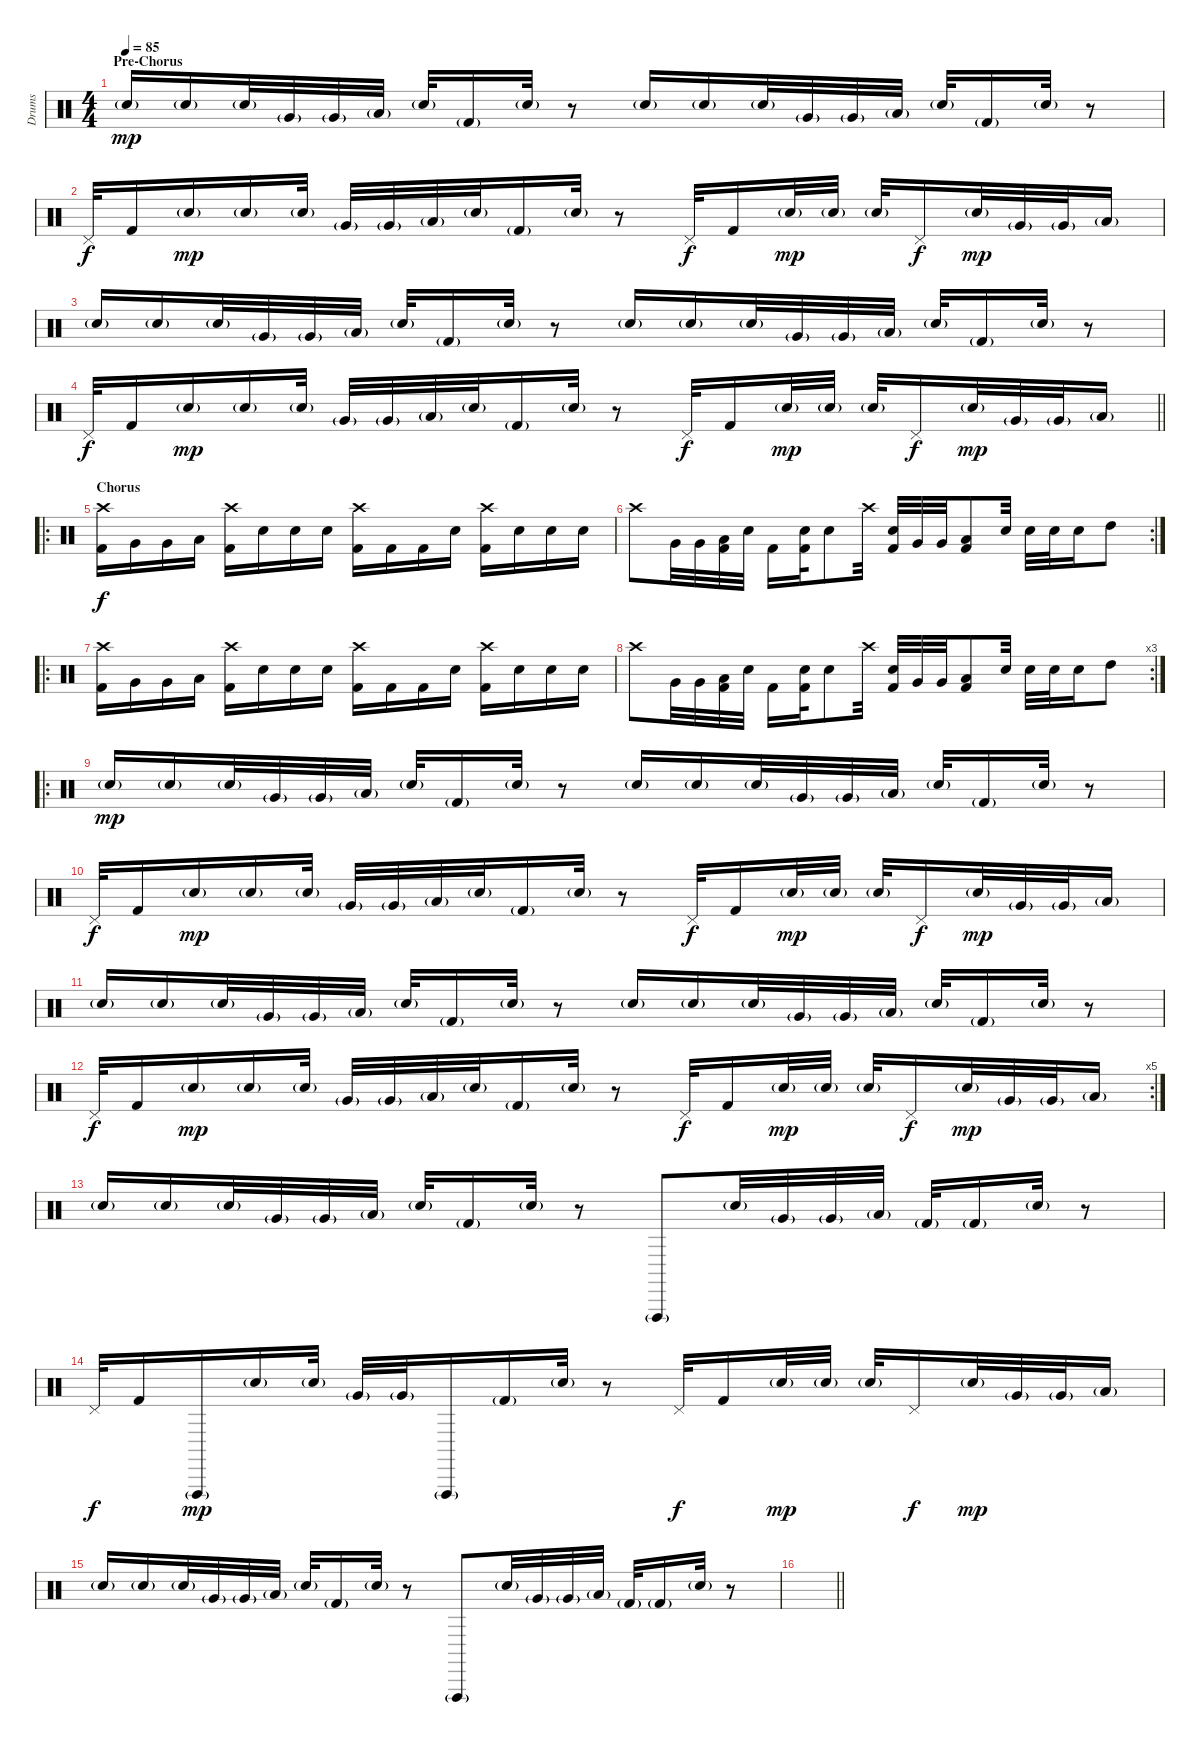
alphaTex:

\track ("Drums" "Drums") {instrument percussion}
\staff {score}
\articulation defaults
\ts (4 4)
\section ("" "Pre-Chorus")
\tempo 85
\clef neutral
\ks c "Snare (hit) 2"{g}.16{dy mp} "Snare (hit) 2"{g}.16 "Snare (hit) 2"{g}.32 "Very Low Tom (hit)"{g}.32 "Very Low Tom (hit)"{g}.32 "Low Tom (hit)"{g}.32 "Snare (hit) 2"{g}.32 "Kick (hit) 2"{g}.16 "Snare (hit) 2"{g}.32
r.8 "Snare (hit) 2"{g}.16 "Snare (hit) 2"{g}.16 "Snare (hit) 2"{g}.32 "Very Low Tom (hit)"{g}.32 "Very Low Tom (hit)"{g}.32 "Low Tom (hit)"{g}.32 "Snare (hit) 2"{g}.32 "Kick (hit) 2"{g}.16 "Snare (hit) 2"{g}.32 r.8 |
"Pedal Hi-Hat (hit)".32{dy f} "Kick (hit) 2".16 "Snare (hit) 2"{g}.16{dy mp} "Snare (hit) 2"{g}.16 "Snare (hit) 2"{g}.32 "Very Low Tom (hit)"{g}.32 "Very Low Tom (hit)"{g}.32 "Low Tom (hit)"{g}.32 "Snare (hit) 2"{g}.32 "Kick (hit) 2"{g}.16 "Snare (hit) 2"{g}.32 r.8 "Pedal Hi-Hat (hit)".32{dy f} "Kick (hit) 2".16 "Snare (hit) 2"{g}.32{dy mp} "Snare (hit) 2"{g}.32 "Snare (hit) 2"{g}.32 "Pedal Hi-Hat (hit)".16{dy f} "Snare (hit) 2"{g}.32{dy mp} "Very Low Tom (hit)"{g}.32 "Very Low Tom (hit)"{g}.32 "Low Tom (hit)"{g}.16 |
"Snare (hit) 2"{g}.16 "Snare (hit) 2"{g}.16 "Snare (hit) 2"{g}.32 "Very Low Tom (hit)"{g}.32 "Very Low Tom (hit)"{g}.32 "Low Tom (hit)"{g}.32 "Snare (hit) 2"{g}.32 "Kick (hit) 2"{g}.16 "Snare (hit) 2"{g}.32 r.8 "Snare (hit) 2"{g}.16 "Snare (hit) 2"{g}.16 "Snare (hit) 2"{g}.32 "Very Low Tom (hit)"{g}.32 "Very Low Tom (hit)"{g}.32 "Low Tom (hit)"{g}.32 "Snare (hit) 2"{g}.32 "Kick (hit) 2"{g}.16 "Snare (hit) 2"{g}.32 r.8 |
\barLineRight lightlight "Pedal Hi-Hat (hit)".32{dy f} "Kick (hit) 2".16 "Snare (hit) 2"{g}.16{dy mp} "Snare (hit) 2"{g}.16 "Snare (hit) 2"{g}.32 "Very Low Tom (hit)"{g}.32 "Very Low Tom (hit)"{g}.32 "Low Tom (hit)"{g}.32 "Snare (hit) 2"{g}.32 "Kick (hit) 2"{g}.16 "Snare (hit) 2"{g}.32
r.8 "Pedal Hi-Hat (hit)".32{dy f} "Kick (hit) 2".16 "Snare (hit) 2"{g}.32{dy mp} "Snare (hit) 2"{g}.32 "Snare (hit) 2"{g}.32 "Pedal Hi-Hat (hit)".16{dy f} "Snare (hit) 2"{g}.32{dy mp} "Very Low Tom (hit)"{g}.32 "Very Low Tom (hit)"{g}.32 "Low Tom (hit)"{g}.16 |
\ro
\section ("" "Chorus")
("Crash high (hit)" "Kick (hit) 2").16{dy f} "Very Low Tom (hit)".16 "Very Low Tom (hit)".16 "Low Tom (hit)".16 ("Crash high (hit)" "Kick (hit) 2").16 "Snare (hit) 2".16 "Snare (hit) 2".16 "Snare (hit) 2".16 ("Crash high (hit)" "Kick (hit) 2").16 "Kick (hit) 2".16 "Kick (hit) 2".16 "Snare (hit) 2".16 ("Crash high (hit)" "Kick (hit) 2").16 "Snare (hit) 2".16 "Snare (hit) 2".16 "Snare (hit) 2".16 |
\rc 2 "Crash high (hit)".8 "Very Low Tom (hit)".32 "Very Low Tom (hit)".32
("Low Tom (hit)" "Kick (hit) 2").32 "Snare (hit) 2".32 "Kick (hit) 2".16 ("Snare (hit) 2" "Kick (hit) 2").32 "Snare (hit) 2".8 "Crash high (hit)".32 ("Snare (hit) 2" "Kick (hit) 2").32 "Very Low Tom (hit)".32 "Very Low Tom (hit)".32 ("Low Tom (hit)" "Kick (hit) 2").8 "Snare (hit) 2".32 "Snare (hit) 2".32 "Snare (hit) 2".32 "Snare (hit) 2".16 "High Tom (hit)".8 |
\ro
("Crash high (hit)" "Kick (hit) 2").16 "Very Low Tom (hit)".16 "Very Low Tom (hit)".16 "Low Tom (hit)".16 ("Crash high (hit)" "Kick (hit) 2").16 "Snare (hit) 2".16 "Snare (hit) 2".16 "Snare (hit) 2".16 ("Crash high (hit)" "Kick (hit) 2").16 "Kick (hit) 2".16 "Kick (hit) 2".16 "Snare (hit) 2".16 ("Crash high (hit)" "Kick (hit) 2").16 "Snare (hit) 2".16 "Snare (hit) 2".16 "Snare (hit) 2".16 |
\rc 3 "Crash high (hit)".8 "Very Low Tom (hit)".32 "Very Low Tom (hit)".32
("Low Tom (hit)" "Kick (hit) 2").32 "Snare (hit) 2".32 "Kick (hit) 2".16 ("Snare (hit) 2" "Kick (hit) 2").32 "Snare (hit) 2".8 "Crash high (hit)".32 ("Snare (hit) 2" "Kick (hit) 2").32 "Very Low Tom (hit)".32 "Very Low Tom (hit)".32 ("Low Tom (hit)" "Kick (hit) 2").8 "Snare (hit) 2".32 "Snare (hit) 2".32 "Snare (hit) 2".32 "Snare (hit) 2".16 "High Tom (hit)".8 |
\ro "Snare (hit) 2"{g}.16{dy mp} "Snare (hit) 2"{g}.16 "Snare (hit) 2"{g}.32 "Very Low Tom (hit)"{g}.32 "Very Low Tom (hit)"{g}.32 "Low Tom (hit)"{g}.32 "Snare (hit) 2"{g}.32 "Kick (hit) 2"{g}.16 "Snare (hit) 2"{g}.32
r.8 "Snare (hit) 2"{g}.16 "Snare (hit) 2"{g}.16 "Snare (hit) 2"{g}.32 "Very Low Tom (hit)"{g}.32 "Very Low Tom (hit)"{g}.32 "Low Tom (hit)"{g}.32 "Snare (hit) 2"{g}.32 "Kick (hit) 2"{g}.16 "Snare (hit) 2"{g}.32 r.8 |
"Pedal Hi-Hat (hit)".32{dy f} "Kick (hit) 2".16 "Snare (hit) 2"{g}.16{dy mp} "Snare (hit) 2"{g}.16 "Snare (hit) 2"{g}.32 "Very Low Tom (hit)"{g}.32 "Very Low Tom (hit)"{g}.32 "Low Tom (hit)"{g}.32 "Snare (hit) 2"{g}.32 "Kick (hit) 2"{g}.16 "Snare (hit) 2"{g}.32 r.8 "Pedal Hi-Hat (hit)".32{dy f} "Kick (hit) 2".16 "Snare (hit) 2"{g}.32{dy mp} "Snare (hit) 2"{g}.32 "Snare (hit) 2"{g}.32 "Pedal Hi-Hat (hit)".16{dy f} "Snare (hit) 2"{g}.32{dy mp} "Very Low Tom (hit)"{g}.32 "Very Low Tom (hit)"{g}.32 "Low Tom (hit)"{g}.16 |
"Snare (hit) 2"{g}.16 "Snare (hit) 2"{g}.16 "Snare (hit) 2"{g}.32 "Very Low Tom (hit)"{g}.32 "Very Low Tom (hit)"{g}.32 "Low Tom (hit)"{g}.32 "Snare (hit) 2"{g}.32 "Kick (hit) 2"{g}.16 "Snare (hit) 2"{g}.32 r.8 "Snare (hit) 2"{g}.16 "Snare (hit) 2"{g}.16 "Snare (hit) 2"{g}.32 "Very Low Tom (hit)"{g}.32 "Very Low Tom (hit)"{g}.32 "Low Tom (hit)"{g}.32 "Snare (hit) 2"{g}.32 "Kick (hit) 2"{g}.16 "Snare (hit) 2"{g}.32 r.8 |
\rc 5 "Pedal Hi-Hat (hit)".32{dy f} "Kick (hit) 2".16 "Snare (hit) 2"{g}.16{dy mp} "Snare (hit) 2"{g}.16 "Snare (hit) 2"{g}.32 "Very Low Tom (hit)"{g}.32 "Very Low Tom (hit)"{g}.32 "Low Tom (hit)"{g}.32 "Snare (hit) 2"{g}.32 "Kick (hit) 2"{g}.16 "Snare (hit) 2"{g}.32
r.8 "Pedal Hi-Hat (hit)".32{dy f} "Kick (hit) 2".16 "Snare (hit) 2"{g}.32{dy mp} "Snare (hit) 2"{g}.32 "Snare (hit) 2"{g}.32 "Pedal Hi-Hat (hit)".16{dy f} "Snare (hit) 2"{g}.32{dy mp} "Very Low Tom (hit)"{g}.32 "Very Low Tom (hit)"{g}.32 "Low Tom (hit)"{g}.16 |
"Snare (hit) 2"{g}.16 "Snare (hit) 2"{g}.16 "Snare (hit) 2"{g}.32 "Very Low Tom (hit)"{g}.32 "Very Low Tom (hit)"{g}.32 "Low Tom (hit)"{g}.32 "Snare (hit) 2"{g}.32 "Kick (hit) 2"{g}.16 "Snare (hit) 2"{g}.32 r.8 "Vibraslap (hit)"{g}.8 "Snare (hit) 2"{g}.32 "Very Low Tom (hit)"{g}.32 "Very Low Tom (hit)"{g}.32 "Low Tom (hit)"{g}.32 "Kick (hit) 2"{g}.32 "Kick (hit) 2"{g}.16 "Snare (hit) 2"{g}.32 r.8 |
"Pedal Hi-Hat (hit)".32{dy f} "Kick (hit) 2".16 "Vibraslap (hit)"{g}.16{dy mp} "Snare (hit) 2"{g}.16 "Snare (hit) 2"{g}.32 "Very Low Tom (hit)"{g}.32 "Very Low Tom (hit)"{g}.32 "Vibraslap (hit)"{g}.16 "Kick (hit) 2"{g}.16 "Snare (hit) 2"{g}.32 r.8 "Pedal Hi-Hat (hit)".32{dy f} "Kick (hit) 2".16 "Snare (hit) 2"{g}.32{dy mp} "Snare (hit) 2"{g}.32 "Snare (hit) 2"{g}.32 "Pedal Hi-Hat (hit)".16{dy f} "Snare (hit) 2"{g}.32{dy mp} "Very Low Tom (hit)"{g}.32 "Very Low Tom (hit)"{g}.32 "Low Tom (hit)"{g}.16 |
"Snare (hit) 2"{g}.16 "Snare (hit) 2"{g}.16 "Snare (hit) 2"{g}.32 "Very Low Tom (hit)"{g}.32 "Very Low Tom (hit)"{g}.32 "Low Tom (hit)"{g}.32 "Snare (hit) 2"{g}.32 "Kick (hit) 2"{g}.16 "Snare (hit) 2"{g}.32 r.8 "Vibraslap (hit)"{g}.8 "Snare (hit) 2"{g}.32 "Very Low Tom (hit)"{g}.32 "Very Low Tom (hit)"{g}.32 "Low Tom (hit)"{g}.32 "Kick (hit) 2"{g}.32 "Kick (hit) 2"{g}.16 "Snare (hit) 2"{g}.32 r.8 |
\barLineRight lightlight
